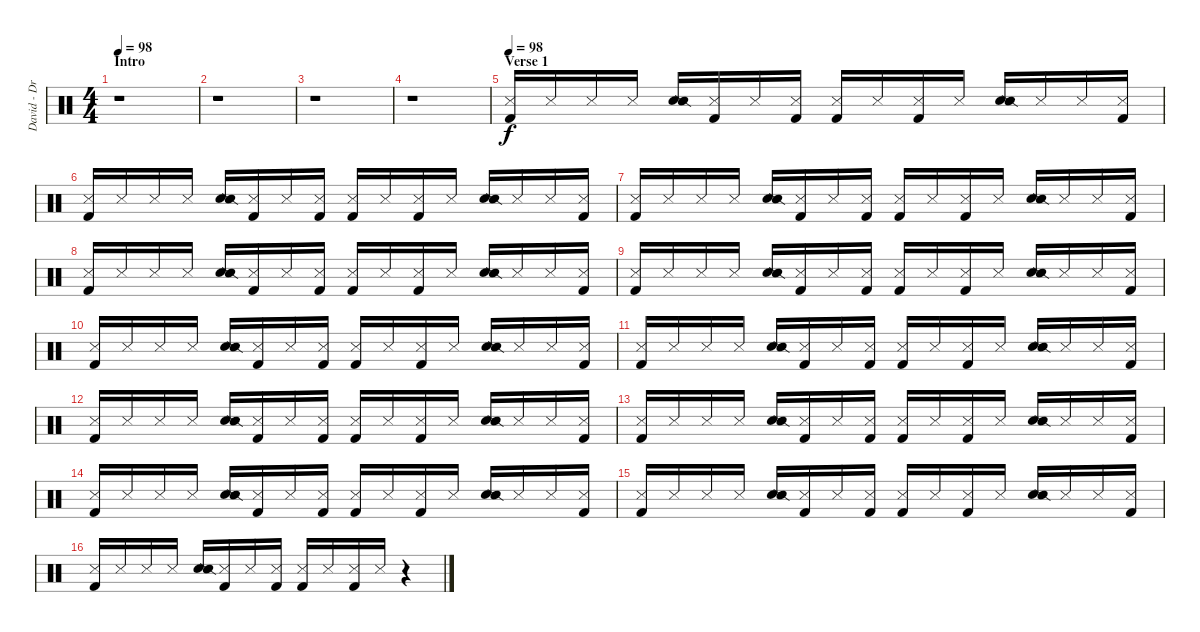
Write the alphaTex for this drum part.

\track ("David - Drums" "David - Dr") {instrument percussion}
\staff {score}
\articulation defaults
\ts (4 4)
\section ("" "Intro")
\tempo 98
\clef neutral
\ks c
r.1{dy f} |
r.1 |
r.1 |
r.1 |
\section ("" "Verse 1")
\tempo 98
("Kick (hit) 2" "Metronome (hit)").16 "Metronome (hit)".16 "Metronome (hit)".16 "Metronome (hit)".16 ("Hand Clap (hit)" "Snare (side stick) 2").16 ("Kick (hit) 2" "Metronome (hit)").16 "Metronome (hit)".16 ("Kick (hit) 2" "Metronome (hit)").16 ("Kick (hit) 2" "Metronome (hit)").16 "Metronome (hit)".16 ("Kick (hit) 2" "Metronome (hit)").16 "Metronome (hit)".16 ("Hand Clap (hit)" "Snare (side stick) 2").16 "Metronome (hit)".16 "Metronome (hit)".16 ("Kick (hit) 2" "Metronome (hit)").16 |
("Kick (hit) 2" "Metronome (hit)").16 "Metronome (hit)".16 "Metronome (hit)".16 "Metronome (hit)".16 ("Hand Clap (hit)" "Snare (side stick) 2").16 ("Kick (hit) 2" "Metronome (hit)").16 "Metronome (hit)".16 ("Kick (hit) 2" "Metronome (hit)").16 ("Kick (hit) 2" "Metronome (hit)").16 "Metronome (hit)".16 ("Kick (hit) 2" "Metronome (hit)").16 "Metronome (hit)".16 ("Hand Clap (hit)" "Snare (side stick) 2").16 "Metronome (hit)".16 "Metronome (hit)".16 ("Kick (hit) 2" "Metronome (hit)").16 |
("Kick (hit) 2" "Metronome (hit)").16 "Metronome (hit)".16 "Metronome (hit)".16 "Metronome (hit)".16 ("Hand Clap (hit)" "Snare (side stick) 2").16 ("Kick (hit) 2" "Metronome (hit)").16 "Metronome (hit)".16 ("Kick (hit) 2" "Metronome (hit)").16 ("Kick (hit) 2" "Metronome (hit)").16 "Metronome (hit)".16 ("Kick (hit) 2" "Metronome (hit)").16 "Metronome (hit)".16 ("Hand Clap (hit)" "Snare (side stick) 2").16 "Metronome (hit)".16 "Metronome (hit)".16 ("Kick (hit) 2" "Metronome (hit)").16 |
("Kick (hit) 2" "Metronome (hit)").16 "Metronome (hit)".16 "Metronome (hit)".16 "Metronome (hit)".16 ("Hand Clap (hit)" "Snare (side stick) 2").16 ("Kick (hit) 2" "Metronome (hit)").16 "Metronome (hit)".16 ("Kick (hit) 2" "Metronome (hit)").16 ("Kick (hit) 2" "Metronome (hit)").16 "Metronome (hit)".16 ("Kick (hit) 2" "Metronome (hit)").16 "Metronome (hit)".16 ("Hand Clap (hit)" "Snare (side stick) 2").16 "Metronome (hit)".16 "Metronome (hit)".16 ("Kick (hit) 2" "Metronome (hit)").16 |
("Kick (hit) 2" "Metronome (hit)").16 "Metronome (hit)".16 "Metronome (hit)".16 "Metronome (hit)".16 ("Hand Clap (hit)" "Snare (side stick) 2").16 ("Kick (hit) 2" "Metronome (hit)").16 "Metronome (hit)".16 ("Kick (hit) 2" "Metronome (hit)").16 ("Kick (hit) 2" "Metronome (hit)").16 "Metronome (hit)".16 ("Kick (hit) 2" "Metronome (hit)").16 "Metronome (hit)".16 ("Hand Clap (hit)" "Snare (side stick) 2").16 "Metronome (hit)".16 "Metronome (hit)".16 ("Kick (hit) 2" "Metronome (hit)").16 |
("Kick (hit) 2" "Metronome (hit)").16 "Metronome (hit)".16 "Metronome (hit)".16 "Metronome (hit)".16 ("Hand Clap (hit)" "Snare (side stick) 2").16 ("Kick (hit) 2" "Metronome (hit)").16 "Metronome (hit)".16 ("Kick (hit) 2" "Metronome (hit)").16 ("Kick (hit) 2" "Metronome (hit)").16 "Metronome (hit)".16 ("Kick (hit) 2" "Metronome (hit)").16 "Metronome (hit)".16 ("Hand Clap (hit)" "Snare (side stick) 2").16 "Metronome (hit)".16 "Metronome (hit)".16 ("Kick (hit) 2" "Metronome (hit)").16 |
("Kick (hit) 2" "Metronome (hit)").16 "Metronome (hit)".16 "Metronome (hit)".16 "Metronome (hit)".16 ("Hand Clap (hit)" "Snare (side stick) 2").16 ("Kick (hit) 2" "Metronome (hit)").16 "Metronome (hit)".16 ("Kick (hit) 2" "Metronome (hit)").16 ("Kick (hit) 2" "Metronome (hit)").16 "Metronome (hit)".16 ("Kick (hit) 2" "Metronome (hit)").16 "Metronome (hit)".16 ("Hand Clap (hit)" "Snare (side stick) 2").16 "Metronome (hit)".16 "Metronome (hit)".16 ("Kick (hit) 2" "Metronome (hit)").16 |
("Kick (hit) 2" "Metronome (hit)").16 "Metronome (hit)".16 "Metronome (hit)".16 "Metronome (hit)".16 ("Hand Clap (hit)" "Snare (side stick) 2").16 ("Kick (hit) 2" "Metronome (hit)").16 "Metronome (hit)".16 ("Kick (hit) 2" "Metronome (hit)").16 ("Kick (hit) 2" "Metronome (hit)").16 "Metronome (hit)".16 ("Kick (hit) 2" "Metronome (hit)").16 "Metronome (hit)".16 ("Hand Clap (hit)" "Snare (side stick) 2").16 "Metronome (hit)".16 "Metronome (hit)".16 ("Kick (hit) 2" "Metronome (hit)").16 |
("Kick (hit) 2" "Metronome (hit)").16 "Metronome (hit)".16 "Metronome (hit)".16 "Metronome (hit)".16 ("Hand Clap (hit)" "Snare (side stick) 2").16 ("Kick (hit) 2" "Metronome (hit)").16 "Metronome (hit)".16 ("Kick (hit) 2" "Metronome (hit)").16 ("Kick (hit) 2" "Metronome (hit)").16 "Metronome (hit)".16 ("Kick (hit) 2" "Metronome (hit)").16 "Metronome (hit)".16 ("Hand Clap (hit)" "Snare (side stick) 2").16 "Metronome (hit)".16 "Metronome (hit)".16 ("Kick (hit) 2" "Metronome (hit)").16 |
("Kick (hit) 2" "Metronome (hit)").16 "Metronome (hit)".16 "Metronome (hit)".16 "Metronome (hit)".16 ("Hand Clap (hit)" "Snare (side stick) 2").16 ("Kick (hit) 2" "Metronome (hit)").16 "Metronome (hit)".16 ("Kick (hit) 2" "Metronome (hit)").16 ("Kick (hit) 2" "Metronome (hit)").16 "Metronome (hit)".16 ("Kick (hit) 2" "Metronome (hit)").16 "Metronome (hit)".16 ("Hand Clap (hit)" "Snare (side stick) 2").16 "Metronome (hit)".16 "Metronome (hit)".16 ("Kick (hit) 2" "Metronome (hit)").16 |
("Kick (hit) 2" "Metronome (hit)").16 "Metronome (hit)".16 "Metronome (hit)".16 "Metronome (hit)".16 ("Hand Clap (hit)" "Snare (side stick) 2").16 ("Kick (hit) 2" "Metronome (hit)").16 "Metronome (hit)".16 ("Kick (hit) 2" "Metronome (hit)").16 ("Kick (hit) 2" "Metronome (hit)").16 "Metronome (hit)".16 ("Kick (hit) 2" "Metronome (hit)").16 "Metronome (hit)".16 ("Hand Clap (hit)" "Snare (side stick) 2").16 "Metronome (hit)".16 "Metronome (hit)".16 ("Kick (hit) 2" "Metronome (hit)").16 |
("Kick (hit) 2" "Metronome (hit)").16 "Metronome (hit)".16 "Metronome (hit)".16 "Metronome (hit)".16 ("Hand Clap (hit)" "Snare (side stick) 2").16 ("Kick (hit) 2" "Metronome (hit)").16 "Metronome (hit)".16 ("Kick (hit) 2" "Metronome (hit)").16 ("Kick (hit) 2" "Metronome (hit)").16 "Metronome (hit)".16 ("Kick (hit) 2" "Metronome (hit)").16 "Metronome (hit)".16 r.4
